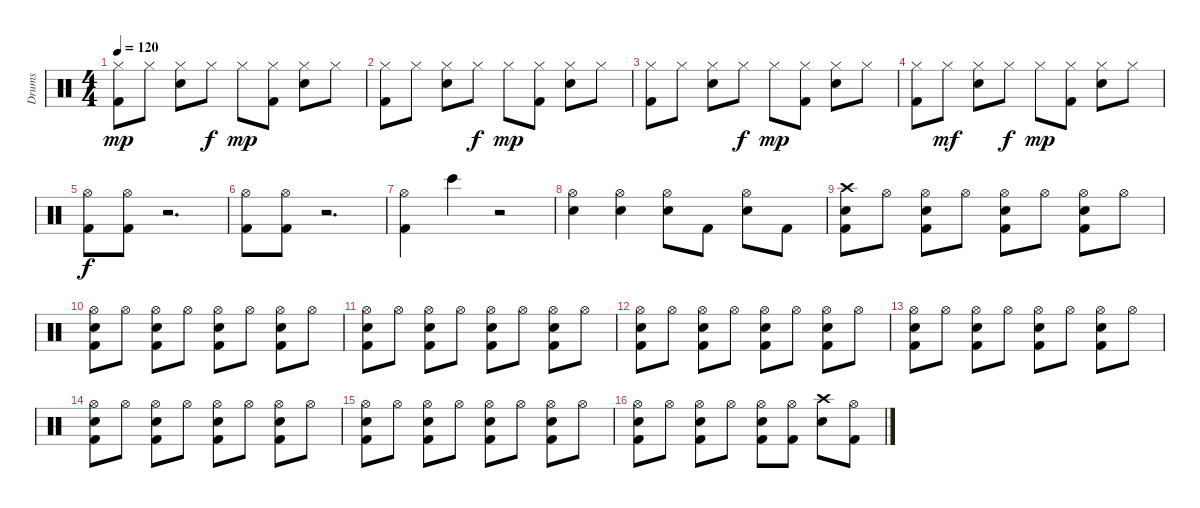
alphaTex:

\track ("Drums" "Drums") {instrument percussion}
\staff {score}
\articulation defaults
\ts (4 4)
\tempo 120
\clef neutral
\ks c
("Kick (hit) 2" "Hi-Hat (closed)").8{dy mp volume 9} "Hi-Hat (closed)".8 ("Hi-Hat (closed)" "Electric Snare (hit)").8 "Hi-Hat (closed)".8{dy f} "Hi-Hat (closed)".8{dy mp} ("Kick (hit) 2" "Hi-Hat (closed)").8 ("Hi-Hat (closed)" "Electric Snare (hit)").8 "Hi-Hat (closed)".8 |
("Kick (hit) 2" "Hi-Hat (closed)").8 "Hi-Hat (closed)".8 ("Hi-Hat (closed)" "Electric Snare (hit)").8 "Hi-Hat (closed)".8{dy f} "Hi-Hat (closed)".8{dy mp} ("Kick (hit) 2" "Hi-Hat (closed)").8 ("Hi-Hat (closed)" "Electric Snare (hit)").8 "Hi-Hat (closed)".8 |
("Kick (hit) 2" "Hi-Hat (closed)").8 "Hi-Hat (closed)".8 ("Hi-Hat (closed)" "Electric Snare (hit)").8 "Hi-Hat (closed)".8{dy f} "Hi-Hat (closed)".8{dy mp} ("Kick (hit) 2" "Hi-Hat (closed)").8 ("Hi-Hat (closed)" "Electric Snare (hit)").8 "Hi-Hat (closed)".8 |
("Kick (hit) 2" "Hi-Hat (closed)").8 "Hi-Hat (closed)".8{dy mf} ("Hi-Hat (closed)" "Electric Snare (hit)").8 "Hi-Hat (closed)".8{dy f} "Hi-Hat (closed)".8{dy mp} ("Kick (hit) 2" "Hi-Hat (closed)").8 ("Hi-Hat (closed)" "Electric Snare (hit)").8 "Hi-Hat (closed)".8 |
("Kick (hit) 2" "Hi-Hat (open)").8{dy f} ("Kick (hit) 2" "Hi-Hat (open)").8 r.2{d} |
("Kick (hit) 2" "Hi-Hat (open)").8 ("Kick (hit) 2" "Hi-Hat (open)").8 r.2{d} |
("Kick (hit) 2" "Hi-Hat (open)").4 "Bongo High (hit)".4 r.2 |
("Hi-Hat (open)" "Snare (hit) 2").4 ("Hi-Hat (open)" "Snare (hit) 2").4 ("Hi-Hat (open)" "Snare (hit) 2").8 "Kick (hit) 2".8 ("Hi-Hat (open)" "Snare (hit) 2").8 "Kick (hit) 2".8 |
("Kick (hit) 2" "Crash high (hit)" "Snare (hit) 2").8 "Hi-Hat (open)".8 ("Kick (hit) 2" "Hi-Hat (open)" "Snare (hit) 2").8 "Hi-Hat (open)".8 ("Kick (hit) 2" "Hi-Hat (open)" "Snare (hit) 2").8 "Hi-Hat (open)".8 ("Kick (hit) 2" "Hi-Hat (open)" "Snare (hit) 2").8 "Hi-Hat (open)".8 |
("Kick (hit) 2" "Hi-Hat (open)" "Snare (hit) 2").8 "Hi-Hat (open)".8 ("Kick (hit) 2" "Hi-Hat (open)" "Snare (hit) 2").8 "Hi-Hat (open)".8 ("Kick (hit) 2" "Hi-Hat (open)" "Snare (hit) 2").8 "Hi-Hat (open)".8 ("Kick (hit) 2" "Hi-Hat (open)" "Snare (hit) 2").8 "Hi-Hat (open)".8 |
("Kick (hit) 2" "Hi-Hat (open)" "Snare (hit) 2").8 "Hi-Hat (open)".8 ("Kick (hit) 2" "Hi-Hat (open)" "Snare (hit) 2").8 "Hi-Hat (open)".8 ("Kick (hit) 2" "Hi-Hat (open)" "Snare (hit) 2").8 "Hi-Hat (open)".8 ("Kick (hit) 2" "Hi-Hat (open)" "Snare (hit) 2").8 "Hi-Hat (open)".8 |
("Kick (hit) 2" "Hi-Hat (open)" "Snare (hit) 2").8 "Hi-Hat (open)".8 ("Kick (hit) 2" "Hi-Hat (open)" "Snare (hit) 2").8 "Hi-Hat (open)".8 ("Kick (hit) 2" "Hi-Hat (open)" "Snare (hit) 2").8 "Hi-Hat (open)".8 ("Kick (hit) 2" "Hi-Hat (open)" "Snare (hit) 2").8 "Hi-Hat (open)".8 |
("Kick (hit) 2" "Hi-Hat (open)" "Snare (hit) 2").8 "Hi-Hat (open)".8 ("Kick (hit) 2" "Hi-Hat (open)" "Snare (hit) 2").8 "Hi-Hat (open)".8 ("Kick (hit) 2" "Hi-Hat (open)" "Snare (hit) 2").8 "Hi-Hat (open)".8 ("Kick (hit) 2" "Hi-Hat (open)" "Snare (hit) 2").8 "Hi-Hat (open)".8 |
("Kick (hit) 2" "Hi-Hat (open)" "Snare (hit) 2").8 "Hi-Hat (open)".8 ("Kick (hit) 2" "Hi-Hat (open)" "Snare (hit) 2").8 "Hi-Hat (open)".8 ("Kick (hit) 2" "Hi-Hat (open)" "Snare (hit) 2").8 "Hi-Hat (open)".8 ("Kick (hit) 2" "Hi-Hat (open)" "Snare (hit) 2").8 "Hi-Hat (open)".8 |
("Kick (hit) 2" "Hi-Hat (open)" "Snare (hit) 2").8 "Hi-Hat (open)".8 ("Kick (hit) 2" "Hi-Hat (open)" "Snare (hit) 2").8 "Hi-Hat (open)".8 ("Kick (hit) 2" "Hi-Hat (open)" "Snare (hit) 2").8 "Hi-Hat (open)".8 ("Kick (hit) 2" "Hi-Hat (open)" "Snare (hit) 2").8 "Hi-Hat (open)".8 |
("Kick (hit) 2" "Hi-Hat (open)" "Snare (hit) 2").8 "Hi-Hat (open)".8 ("Kick (hit) 2" "Hi-Hat (open)" "Snare (hit) 2").8 "Hi-Hat (open)".8 ("Kick (hit) 2" "Hi-Hat (open)" "Snare (hit) 2").8 ("Kick (hit) 2" "Hi-Hat (open)").8 ("Crash high (hit)" "Snare (hit) 2").8 ("Kick (hit) 2" "Hi-Hat (open)").8
